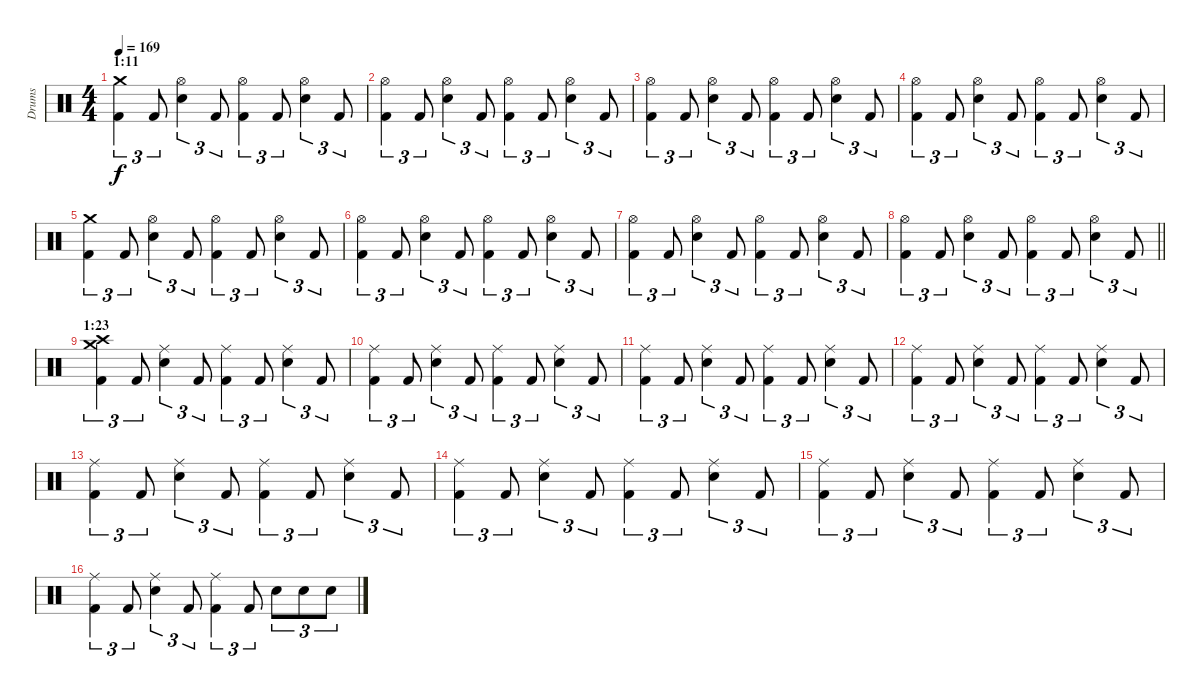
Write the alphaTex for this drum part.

\track ("Drums" "Drums") {instrument percussion}
\staff {score}
\articulation defaults
\ts (4 4)
\section ("" "1:11")
\tempo 169
\clef neutral
\ks c
("Crash medium (hit)" "Kick (hit) 2").4{tu (3 2) dy f} "Kick (hit) 2".8{tu (3 2)} ("Hi-Hat (open)" "Snare (hit) 2").4{tu (3 2)} "Kick (hit) 2".8{tu (3 2)} ("Hi-Hat (open)" "Kick (hit) 2").4{tu (3 2)} "Kick (hit) 2".8{tu (3 2)} ("Hi-Hat (open)" "Snare (hit) 2").4{tu (3 2)} "Kick (hit) 2".8{tu (3 2)} |
("Hi-Hat (open)" "Kick (hit) 2").4{tu (3 2)} "Kick (hit) 2".8{tu (3 2)} ("Hi-Hat (open)" "Snare (hit) 2").4{tu (3 2)} "Kick (hit) 2".8{tu (3 2)} ("Hi-Hat (open)" "Kick (hit) 2").4{tu (3 2)} "Kick (hit) 2".8{tu (3 2)} ("Hi-Hat (open)" "Snare (hit) 2").4{tu (3 2)} "Kick (hit) 2".8{tu (3 2)} |
("Hi-Hat (open)" "Kick (hit) 2").4{tu (3 2)} "Kick (hit) 2".8{tu (3 2)} ("Hi-Hat (open)" "Snare (hit) 2").4{tu (3 2)} "Kick (hit) 2".8{tu (3 2)} ("Hi-Hat (open)" "Kick (hit) 2").4{tu (3 2)} "Kick (hit) 2".8{tu (3 2)} ("Hi-Hat (open)" "Snare (hit) 2").4{tu (3 2)} "Kick (hit) 2".8{tu (3 2)} |
("Hi-Hat (open)" "Kick (hit) 2").4{tu (3 2)} "Kick (hit) 2".8{tu (3 2)} ("Hi-Hat (open)" "Snare (hit) 2").4{tu (3 2)} "Kick (hit) 2".8{tu (3 2)} ("Hi-Hat (open)" "Kick (hit) 2").4{tu (3 2)} "Kick (hit) 2".8{tu (3 2)} ("Hi-Hat (open)" "Snare (hit) 2").4{tu (3 2)} "Kick (hit) 2".8{tu (3 2)} |
("Crash medium (hit)" "Kick (hit) 2").4{tu (3 2)} "Kick (hit) 2".8{tu (3 2)} ("Hi-Hat (open)" "Snare (hit) 2").4{tu (3 2)} "Kick (hit) 2".8{tu (3 2)} ("Hi-Hat (open)" "Kick (hit) 2").4{tu (3 2)} "Kick (hit) 2".8{tu (3 2)} ("Hi-Hat (open)" "Snare (hit) 2").4{tu (3 2)} "Kick (hit) 2".8{tu (3 2)} |
("Hi-Hat (open)" "Kick (hit) 2").4{tu (3 2)} "Kick (hit) 2".8{tu (3 2)} ("Hi-Hat (open)" "Snare (hit) 2").4{tu (3 2)} "Kick (hit) 2".8{tu (3 2)} ("Hi-Hat (open)" "Kick (hit) 2").4{tu (3 2)} "Kick (hit) 2".8{tu (3 2)} ("Hi-Hat (open)" "Snare (hit) 2").4{tu (3 2)} "Kick (hit) 2".8{tu (3 2)} |
("Hi-Hat (open)" "Kick (hit) 2").4{tu (3 2)} "Kick (hit) 2".8{tu (3 2)} ("Hi-Hat (open)" "Snare (hit) 2").4{tu (3 2)} "Kick (hit) 2".8{tu (3 2)} ("Hi-Hat (open)" "Kick (hit) 2").4{tu (3 2)} "Kick (hit) 2".8{tu (3 2)} ("Hi-Hat (open)" "Snare (hit) 2").4{tu (3 2)} "Kick (hit) 2".8{tu (3 2)} |
\barLineRight lightlight
("Hi-Hat (open)" "Kick (hit) 2").4{tu (3 2)} "Kick (hit) 2".8{tu (3 2)} ("Hi-Hat (open)" "Snare (hit) 2").4{tu (3 2)} "Kick (hit) 2".8{tu (3 2)} ("Hi-Hat (open)" "Kick (hit) 2").4{tu (3 2)} "Kick (hit) 2".8{tu (3 2)} ("Hi-Hat (open)" "Snare (hit) 2").4{tu (3 2)} "Kick (hit) 2".8{tu (3 2)} |
\section ("" "1:23")
("Crash high (hit)" "Crash medium (hit)" "Kick (hit) 2").4{tu (3 2)} "Kick (hit) 2".8{tu (3 2)} ("Ride (middle)" "Snare (hit) 2").4{tu (3 2)} "Kick (hit) 2".8{tu (3 2)} ("Ride (middle)" "Kick (hit) 2").4{tu (3 2)} "Kick (hit) 2".8{tu (3 2)} ("Ride (middle)" "Snare (hit) 2").4{tu (3 2)} "Kick (hit) 2".8{tu (3 2)} |
("Ride (middle)" "Kick (hit) 2").4{tu (3 2)} "Kick (hit) 2".8{tu (3 2)} ("Ride (middle)" "Snare (hit) 2").4{tu (3 2)} "Kick (hit) 2".8{tu (3 2)} ("Ride (middle)" "Kick (hit) 2").4{tu (3 2)} "Kick (hit) 2".8{tu (3 2)} ("Ride (middle)" "Snare (hit) 2").4{tu (3 2)} "Kick (hit) 2".8{tu (3 2)} |
("Ride (middle)" "Kick (hit) 2").4{tu (3 2)} "Kick (hit) 2".8{tu (3 2)} ("Ride (middle)" "Snare (hit) 2").4{tu (3 2)} "Kick (hit) 2".8{tu (3 2)} ("Ride (middle)" "Kick (hit) 2").4{tu (3 2)} "Kick (hit) 2".8{tu (3 2)} ("Ride (middle)" "Snare (hit) 2").4{tu (3 2)} "Kick (hit) 2".8{tu (3 2)} |
("Ride (middle)" "Kick (hit) 2").4{tu (3 2)} "Kick (hit) 2".8{tu (3 2)} ("Ride (middle)" "Snare (hit) 2").4{tu (3 2)} "Kick (hit) 2".8{tu (3 2)} ("Ride (middle)" "Kick (hit) 2").4{tu (3 2)} "Kick (hit) 2".8{tu (3 2)} ("Ride (middle)" "Snare (hit) 2").4{tu (3 2)} "Kick (hit) 2".8{tu (3 2)} |
("Ride (middle)" "Kick (hit) 2").4{tu (3 2)} "Kick (hit) 2".8{tu (3 2)} ("Ride (middle)" "Snare (hit) 2").4{tu (3 2)} "Kick (hit) 2".8{tu (3 2)} ("Ride (middle)" "Kick (hit) 2").4{tu (3 2)} "Kick (hit) 2".8{tu (3 2)} ("Ride (middle)" "Snare (hit) 2").4{tu (3 2)} "Kick (hit) 2".8{tu (3 2)} |
("Ride (middle)" "Kick (hit) 2").4{tu (3 2)} "Kick (hit) 2".8{tu (3 2)} ("Ride (middle)" "Snare (hit) 2").4{tu (3 2)} "Kick (hit) 2".8{tu (3 2)} ("Ride (middle)" "Kick (hit) 2").4{tu (3 2)} "Kick (hit) 2".8{tu (3 2)} ("Ride (middle)" "Snare (hit) 2").4{tu (3 2)} "Kick (hit) 2".8{tu (3 2)} |
("Ride (middle)" "Kick (hit) 2").4{tu (3 2)} "Kick (hit) 2".8{tu (3 2)} ("Ride (middle)" "Snare (hit) 2").4{tu (3 2)} "Kick (hit) 2".8{tu (3 2)} ("Ride (middle)" "Kick (hit) 2").4{tu (3 2)} "Kick (hit) 2".8{tu (3 2)} ("Ride (middle)" "Snare (hit) 2").4{tu (3 2)} "Kick (hit) 2".8{tu (3 2)} |
("Ride (middle)" "Kick (hit) 2").4{tu (3 2)} "Kick (hit) 2".8{tu (3 2)} ("Ride (middle)" "Snare (hit) 2").4{tu (3 2)} "Kick (hit) 2".8{tu (3 2)} ("Ride (middle)" "Kick (hit) 2").4{tu (3 2)} "Kick (hit) 2".8{tu (3 2)} "Snare (hit) 2".8{tu (3 2)} "Snare (hit) 2".8{tu (3 2)} "Snare (hit) 2".8{tu (3 2)}
